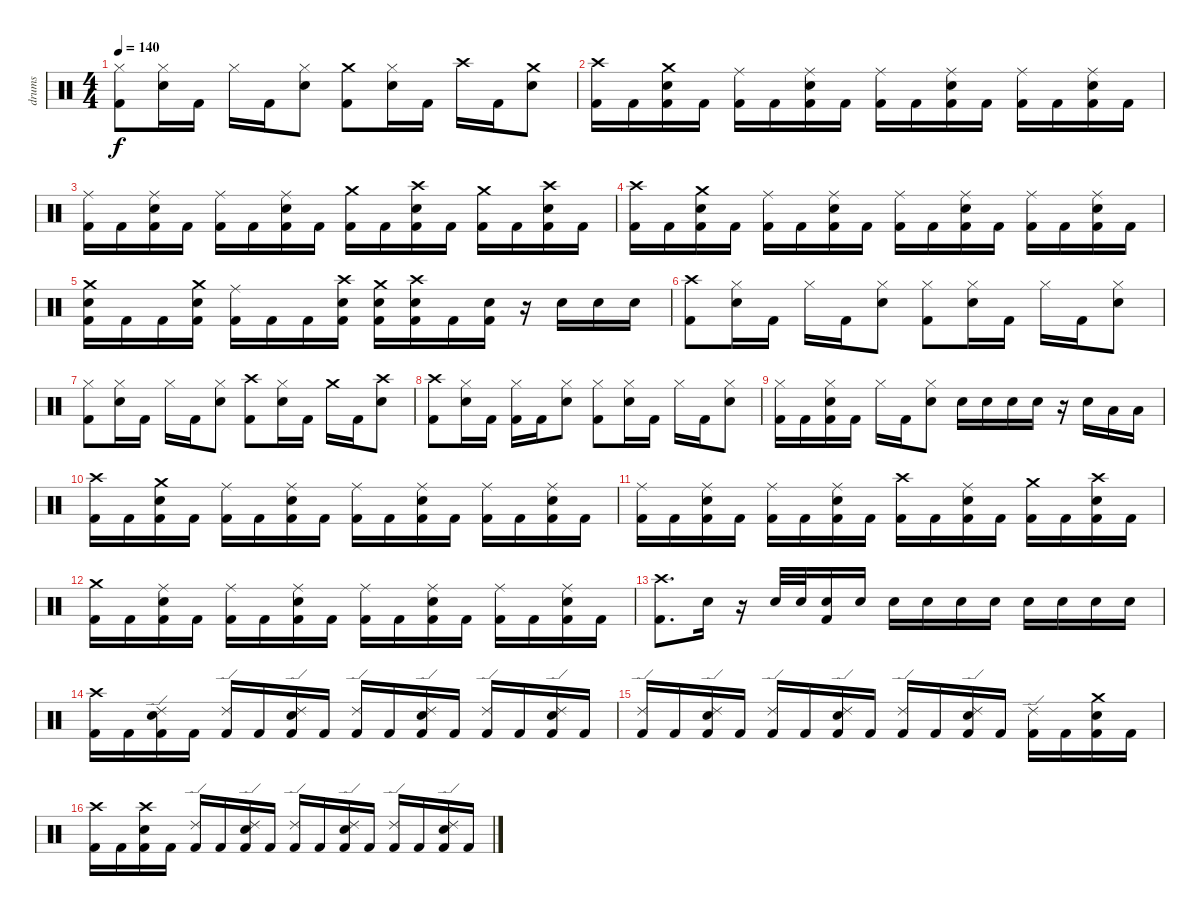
\track ("drums" "drums") {instrument percussion}
\staff {score}
\articulation defaults
\ts (4 4)
\tempo 140
\clef neutral
\ks c
("Hi-Hat (closed)" "Kick (hit) 2").8{dy f} ("Hi-Hat (closed)" "Electric Snare (hit)").16 "Kick (hit) 2".16 "Hi-Hat (closed)".16 "Kick (hit) 2".16 ("Hi-Hat (closed)" "Electric Snare (hit)").8 ("Crash medium (hit)" "Kick (hit) 2").8 ("Hi-Hat (closed)" "Electric Snare (hit)").16 "Kick (hit) 2".16 "Crash high (hit)".16 "Kick (hit) 2".16 ("Crash medium (hit)" "Electric Snare (hit)").8 |
("Crash high (hit)" "Kick (hit) 2").16 "Kick (hit) 2".16 ("Crash medium (hit)" "Electric Snare (hit)" "Kick (hit) 2").16 "Kick (hit) 2".16 ("Ride (middle)" "Kick (hit) 2").16 "Kick (hit) 2".16 ("Ride (middle)" "Electric Snare (hit)" "Kick (hit) 2").16 "Kick (hit) 2".16 ("Ride (middle)" "Kick (hit) 2").16 "Kick (hit) 2".16 ("Ride (middle)" "Electric Snare (hit)" "Kick (hit) 2").16 "Kick (hit) 2".16 ("Ride (middle)" "Kick (hit) 2").16 "Kick (hit) 2".16 ("Ride (middle)" "Electric Snare (hit)" "Kick (hit) 2").16 "Kick (hit) 2".16 |
("Ride (middle)" "Kick (hit) 2").16 "Kick (hit) 2".16 ("Ride (middle)" "Electric Snare (hit)" "Kick (hit) 2").16 "Kick (hit) 2".16 ("Ride (middle)" "Kick (hit) 2").16 "Kick (hit) 2".16 ("Ride (middle)" "Electric Snare (hit)" "Kick (hit) 2").16 "Kick (hit) 2".16 ("Crash medium (hit)" "Kick (hit) 2").16 "Kick (hit) 2".16 ("Crash high (hit)" "Electric Snare (hit)" "Kick (hit) 2").16 "Kick (hit) 2".16 ("Crash medium (hit)" "Kick (hit) 2").16 "Kick (hit) 2".16 ("Crash high (hit)" "Electric Snare (hit)" "Kick (hit) 2").16 "Kick (hit) 2".16 |
("Crash high (hit)" "Kick (hit) 2").16 "Kick (hit) 2".16 ("Crash medium (hit)" "Electric Snare (hit)" "Kick (hit) 2").16 "Kick (hit) 2".16 ("Ride (middle)" "Kick (hit) 2").16 "Kick (hit) 2".16 ("Ride (middle)" "Electric Snare (hit)" "Kick (hit) 2").16 "Kick (hit) 2".16 ("Ride (middle)" "Kick (hit) 2").16 "Kick (hit) 2".16 ("Ride (middle)" "Electric Snare (hit)" "Kick (hit) 2").16 "Kick (hit) 2".16 ("Ride (middle)" "Kick (hit) 2").16 "Kick (hit) 2".16 ("Ride (middle)" "Electric Snare (hit)" "Kick (hit) 2").16 "Kick (hit) 2".16 |
("Crash medium (hit)" "Electric Snare (hit)" "Kick (hit) 2").16 "Kick (hit) 2".16 "Kick (hit) 2".16 ("Crash medium (hit)" "Electric Snare (hit)" "Kick (hit) 2").16 ("Ride (middle)" "Kick (hit) 2").16 "Kick (hit) 2".16 "Kick (hit) 2".16 ("Crash high (hit)" "Electric Snare (hit)" "Kick (hit) 2").16 ("Crash medium (hit)" "Electric Snare (hit)" "Kick (hit) 2").16 ("Crash high (hit)" "Electric Snare (hit)" "Kick (hit) 2").16 "Kick (hit) 2".16 ("Electric Snare (hit)" "Kick (hit) 2").16 r.16 "Electric Snare (hit)".16 "Electric Snare (hit)".16 "Electric Snare (hit)".16 |
("Crash high (hit)" "Kick (hit) 2").8 ("Hi-Hat (closed)" "Electric Snare (hit)").16 "Kick (hit) 2".16 "Hi-Hat (closed)".16 "Kick (hit) 2".16 ("Hi-Hat (closed)" "Electric Snare (hit)").8 ("Hi-Hat (closed)" "Kick (hit) 2").8 ("Hi-Hat (closed)" "Electric Snare (hit)").16 "Kick (hit) 2".16 "Hi-Hat (closed)".16 "Kick (hit) 2".16 ("Hi-Hat (closed)" "Electric Snare (hit)").8 |
("Hi-Hat (closed)" "Kick (hit) 2").8 ("Hi-Hat (closed)" "Electric Snare (hit)").16 "Kick (hit) 2".16 "Hi-Hat (closed)".16 "Kick (hit) 2".16 ("Hi-Hat (closed)" "Electric Snare (hit)").8 ("Crash high (hit)" "Kick (hit) 2").8 ("Hi-Hat (closed)" "Electric Snare (hit)").16 "Kick (hit) 2".16 "Crash medium (hit)".16 "Kick (hit) 2".16 ("Crash high (hit)" "Electric Snare (hit)").8 |
("Crash high (hit)" "Kick (hit) 2").8 ("Hi-Hat (closed)" "Electric Snare (hit)").16 "Kick (hit) 2".16 ("Hi-Hat (closed)" "Kick (hit) 2").16 "Kick (hit) 2".16 ("Hi-Hat (closed)" "Electric Snare (hit)").8 ("Hi-Hat (closed)" "Kick (hit) 2").8 ("Hi-Hat (closed)" "Electric Snare (hit)").16 "Kick (hit) 2".16 "Hi-Hat (closed)".16 "Kick (hit) 2".16 ("Hi-Hat (closed)" "Electric Snare (hit)").8 |
("Hi-Hat (closed)" "Kick (hit) 2").16 "Kick (hit) 2".16 ("Hi-Hat (closed)" "Electric Snare (hit)" "Kick (hit) 2").16 "Kick (hit) 2".16 "Hi-Hat (closed)".16 "Kick (hit) 2".16 ("Hi-Hat (closed)" "Electric Snare (hit)").8 "Electric Snare (hit)".16 "Electric Snare (hit)".16 "Electric Snare (hit)".16 "Electric Snare (hit)".16 r.16 "Electric Snare (hit)".16 "Low Tom (hit)".16 "Low Tom (hit)".16 |
("Crash high (hit)" "Kick (hit) 2").16 "Kick (hit) 2".16 ("Crash medium (hit)" "Electric Snare (hit)" "Kick (hit) 2").16 "Kick (hit) 2".16 ("Ride (middle)" "Kick (hit) 2").16 "Kick (hit) 2".16 ("Ride (middle)" "Electric Snare (hit)" "Kick (hit) 2").16 "Kick (hit) 2".16 ("Ride (middle)" "Kick (hit) 2").16 "Kick (hit) 2".16 ("Ride (middle)" "Electric Snare (hit)" "Kick (hit) 2").16 "Kick (hit) 2".16 ("Ride (middle)" "Kick (hit) 2").16 "Kick (hit) 2".16 ("Ride (middle)" "Electric Snare (hit)" "Kick (hit) 2").16 "Kick (hit) 2".16 |
("Ride (middle)" "Kick (hit) 2").16 "Kick (hit) 2".16 ("Ride (middle)" "Electric Snare (hit)" "Kick (hit) 2").16 "Kick (hit) 2".16 ("Ride (middle)" "Kick (hit) 2").16 "Kick (hit) 2".16 ("Ride (middle)" "Electric Snare (hit)" "Kick (hit) 2").16 "Kick (hit) 2".16 ("Crash high (hit)" "Kick (hit) 2").16 "Kick (hit) 2".16 ("Ride (middle)" "Electric Snare (hit)" "Kick (hit) 2").16 "Kick (hit) 2".16 ("Crash medium (hit)" "Kick (hit) 2").16 "Kick (hit) 2".16 ("Crash high (hit)" "Electric Snare (hit)" "Kick (hit) 2").16 "Kick (hit) 2".16 |
("Crash medium (hit)" "Kick (hit) 2").16 "Kick (hit) 2".16 ("Ride (middle)" "Electric Snare (hit)" "Kick (hit) 2").16 "Kick (hit) 2".16 ("Ride (middle)" "Kick (hit) 2").16 "Kick (hit) 2".16 ("Ride (middle)" "Electric Snare (hit)" "Kick (hit) 2").16 "Kick (hit) 2".16 ("Ride (middle)" "Kick (hit) 2").16 "Kick (hit) 2".16 ("Ride (middle)" "Electric Snare (hit)" "Kick (hit) 2").16 "Kick (hit) 2".16 ("Ride (middle)" "Kick (hit) 2").16 "Kick (hit) 2".16 ("Ride (middle)" "Electric Snare (hit)" "Kick (hit) 2").16 "Kick (hit) 2".16 |
("Crash high (hit)" "Kick (hit) 2").8{d} "Electric Snare (hit)".16 r.16 "Electric Snare (hit)".32 "Electric Snare (hit)".32 ("Electric Snare (hit)" "Kick (hit) 2").16 "Electric Snare (hit)".16 "Electric Snare (hit)".16 "Electric Snare (hit)".16 "Electric Snare (hit)".16 "Electric Snare (hit)".16 "Electric Snare (hit)".16 "Electric Snare (hit)".16 "Electric Snare (hit)".16 "Electric Snare (hit)".16 |
("Crash high (hit)" "Kick (hit) 2").16 "Kick (hit) 2".16 ("Ride (edge) 2" "Electric Snare (hit)" "Kick (hit) 2").16 "Kick (hit) 2".16 ("Ride (edge) 2" "Kick (hit) 2").16 "Kick (hit) 2".16 ("Ride (edge) 2" "Electric Snare (hit)" "Kick (hit) 2").16 "Kick (hit) 2".16 ("Ride (edge) 2" "Kick (hit) 2").16 "Kick (hit) 2".16 ("Ride (edge) 2" "Electric Snare (hit)" "Kick (hit) 2").16 "Kick (hit) 2".16 ("Ride (edge) 2" "Kick (hit) 2").16 "Kick (hit) 2".16 ("Ride (edge) 2" "Electric Snare (hit)" "Kick (hit) 2").16 "Kick (hit) 2".16 |
("Ride (edge) 2" "Kick (hit) 2").16 "Kick (hit) 2".16 ("Ride (edge) 2" "Electric Snare (hit)" "Kick (hit) 2").16 "Kick (hit) 2".16 ("Ride (edge) 2" "Kick (hit) 2").16 "Kick (hit) 2".16 ("Ride (edge) 2" "Electric Snare (hit)" "Kick (hit) 2").16 "Kick (hit) 2".16 ("Ride (edge) 2" "Kick (hit) 2").16 "Kick (hit) 2".16 ("Ride (edge) 2" "Electric Snare (hit)" "Kick (hit) 2").16 "Kick (hit) 2".16 ("Ride (edge) 2" "Kick (hit) 2").16 "Kick (hit) 2".16 ("Crash medium (hit)" "Electric Snare (hit)" "Kick (hit) 2").16 "Kick (hit) 2".16 |
("Crash high (hit)" "Kick (hit) 2").16 "Kick (hit) 2".16 ("Crash high (hit)" "Electric Snare (hit)" "Kick (hit) 2").16 "Kick (hit) 2".16 ("Ride (edge) 2" "Kick (hit) 2").16 "Kick (hit) 2".16 ("Ride (edge) 2" "Electric Snare (hit)" "Kick (hit) 2").16 "Kick (hit) 2".16 ("Ride (edge) 2" "Kick (hit) 2").16 "Kick (hit) 2".16 ("Ride (edge) 2" "Electric Snare (hit)" "Kick (hit) 2").16 "Kick (hit) 2".16 ("Ride (edge) 2" "Kick (hit) 2").16 "Kick (hit) 2".16 ("Ride (edge) 2" "Electric Snare (hit)" "Kick (hit) 2").16 "Kick (hit) 2".16
